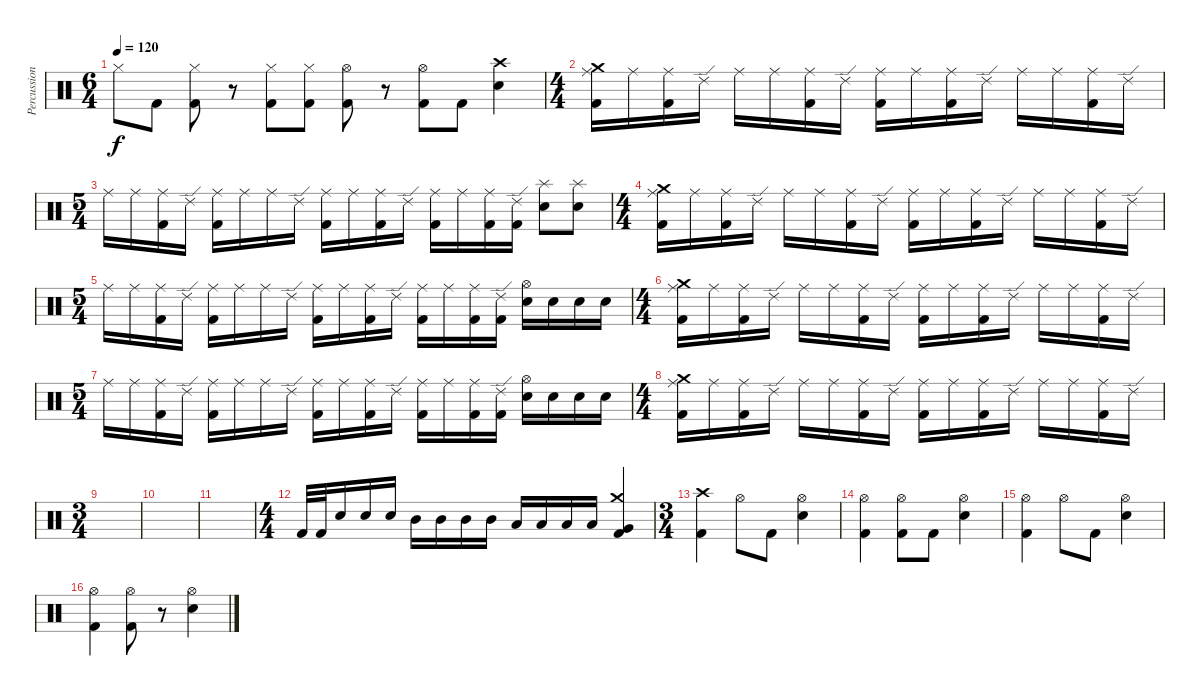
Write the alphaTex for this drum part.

\track ("Percussion" "Percussion") {instrument percussion}
\staff {score}
\articulation defaults
\ts (6 4)
\tempo 120
\clef neutral
\ks c "Hi-Hat (closed)".8{dy f} "Kick (hit) 2".8
("Hi-Hat (closed)" "Kick (hit) 2").8 r.8 ("Hi-Hat (closed)" "Kick (hit) 2").8 ("Hi-Hat (closed)" "Kick (hit) 2").8 ("Hi-Hat (open)" "Kick (hit) 2").8 r.8 ("Hi-Hat (open)" "Kick (hit) 2").8 "Kick (hit) 2".8 ("Crash high (hit)" "Electric Snare (hit)").4 |
\ts (4 4)
("Crash medium (hit)" "Ride (middle)" "Kick (hit) 2").16 "Ride (middle)".16 ("Ride (middle)" "Kick (hit) 2").16 "Ride (edge) 2".16 "Ride (middle)".16 "Ride (middle)".16 ("Ride (middle)" "Kick (hit) 2").16 "Ride (edge) 2".16 ("Ride (middle)" "Kick (hit) 2").16 "Ride (middle)".16 ("Ride (middle)" "Kick (hit) 2").16 "Ride (edge) 2".16 "Ride (middle)".16 "Ride (middle)".16 ("Ride (middle)" "Kick (hit) 2").16 "Ride (edge) 2".16 |
\ts (5 4)
"Ride (middle)".16 "Ride (middle)".16 ("Ride (middle)" "Kick (hit) 2").16 "Ride (edge) 2".16 ("Ride (middle)" "Kick (hit) 2").16 "Ride (middle)".16 "Ride (middle)".16 "Ride (edge) 2".16 ("Ride (middle)" "Kick (hit) 2").16 "Ride (middle)".16 ("Ride (middle)" "Kick (hit) 2").16 "Ride (edge) 2".16 ("Ride (middle)" "Kick (hit) 2").16 "Ride (middle)".16 ("Ride (middle)" "Kick (hit) 2").16 ("Ride (edge) 2" "Kick (hit) 2").16 ("Splash (hit)" "Electric Snare (hit)").8 ("Splash (hit)" "Electric Snare (hit)").8 |
\ts (4 4)
("Crash medium (hit)" "Ride (middle)" "Kick (hit) 2").16 "Ride (middle)".16 ("Ride (middle)" "Kick (hit) 2").16 "Ride (edge) 2".16 "Ride (middle)".16 "Ride (middle)".16 ("Ride (middle)" "Kick (hit) 2").16 "Ride (edge) 2".16 ("Ride (middle)" "Kick (hit) 2").16 "Ride (middle)".16 ("Ride (middle)" "Kick (hit) 2").16 "Ride (edge) 2".16 "Ride (middle)".16 "Ride (middle)".16 ("Ride (middle)" "Kick (hit) 2").16 "Ride (edge) 2".16 |
\ts (5 4)
"Ride (middle)".16 "Ride (middle)".16 ("Ride (middle)" "Kick (hit) 2").16 "Ride (edge) 2".16 ("Ride (middle)" "Kick (hit) 2").16 "Ride (middle)".16 "Ride (middle)".16 "Ride (edge) 2".16 ("Ride (middle)" "Kick (hit) 2").16 "Ride (middle)".16 ("Ride (middle)" "Kick (hit) 2").16 "Ride (edge) 2".16 ("Ride (middle)" "Kick (hit) 2").16 "Ride (middle)".16 ("Ride (middle)" "Kick (hit) 2").16 ("Ride (edge) 2" "Kick (hit) 2").16 ("Electric Snare (hit)" "Hi-Hat (open)").16 "Electric Snare (hit)".16 "Electric Snare (hit)".16 "Electric Snare (hit)".16 |
\ts (4 4)
("Crash medium (hit)" "Ride (middle)" "Kick (hit) 2").16 "Ride (middle)".16 ("Ride (middle)" "Kick (hit) 2").16 "Ride (edge) 2".16 "Ride (middle)".16 "Ride (middle)".16 ("Ride (middle)" "Kick (hit) 2").16 "Ride (edge) 2".16 ("Ride (middle)" "Kick (hit) 2").16 "Ride (middle)".16 ("Ride (middle)" "Kick (hit) 2").16 "Ride (edge) 2".16 "Ride (middle)".16 "Ride (middle)".16 ("Ride (middle)" "Kick (hit) 2").16 "Ride (edge) 2".16 |
\ts (5 4)
"Ride (middle)".16 "Ride (middle)".16 ("Ride (middle)" "Kick (hit) 2").16 "Ride (edge) 2".16 ("Ride (middle)" "Kick (hit) 2").16 "Ride (middle)".16 "Ride (middle)".16 "Ride (edge) 2".16 ("Ride (middle)" "Kick (hit) 2").16 "Ride (middle)".16 ("Ride (middle)" "Kick (hit) 2").16 "Ride (edge) 2".16 ("Ride (middle)" "Kick (hit) 2").16 "Ride (middle)".16 ("Ride (middle)" "Kick (hit) 2").16 ("Ride (edge) 2" "Kick (hit) 2").16 ("Electric Snare (hit)" "Hi-Hat (open)").16 "Electric Snare (hit)".16 "Electric Snare (hit)".16 "Electric Snare (hit)".16 |
\ts (4 4)
("Crash medium (hit)" "Ride (middle)" "Kick (hit) 2").16 "Ride (middle)".16 ("Ride (middle)" "Kick (hit) 2").16 "Ride (edge) 2".16 "Ride (middle)".16 "Ride (middle)".16 ("Ride (middle)" "Kick (hit) 2").16 "Ride (edge) 2".16 ("Ride (middle)" "Kick (hit) 2").16 "Ride (middle)".16 ("Ride (middle)" "Kick (hit) 2").16 "Ride (edge) 2".16 "Ride (middle)".16 "Ride (middle)".16 ("Ride (middle)" "Kick (hit) 2").16 "Ride (edge) 2".16 |
\ts (3 4)
|
|
|
\ts (4 4)
"Kick (hit) 2".32 "Kick (hit) 2".32 "Electric Snare (hit)".16 "Electric Snare (hit)".16 "Electric Snare (hit)".16 "Mid Tom (hit)".16 "Mid Tom (hit)".16 "Mid Tom (hit)".16 "Mid Tom (hit)".16 "Low Tom (hit)".16 "Low Tom (hit)".16 "Low Tom (hit)".16 "Low Tom (hit)".16 ("Crash medium (hit)" "Very Low Tom (hit)" "Kick (hit) 2").4 |
\ts (3 4)
("Crash high (hit)" "Kick (hit) 2").4 "Hi-Hat (open)".8 "Kick (hit) 2".8 ("Hi-Hat (open)" "Electric Snare (hit)").4 |
("Hi-Hat (open)" "Kick (hit) 2").4 ("Hi-Hat (open)" "Kick (hit) 2").8 "Kick (hit) 2".8 ("Hi-Hat (open)" "Electric Snare (hit)").4 |
("Hi-Hat (open)" "Kick (hit) 2").4 "Hi-Hat (open)".8 "Kick (hit) 2".8 ("Hi-Hat (open)" "Electric Snare (hit)").4 |
("Hi-Hat (open)" "Kick (hit) 2").4 ("Hi-Hat (open)" "Kick (hit) 2").8 r.8 ("Hi-Hat (open)" "Electric Snare (hit)").4
